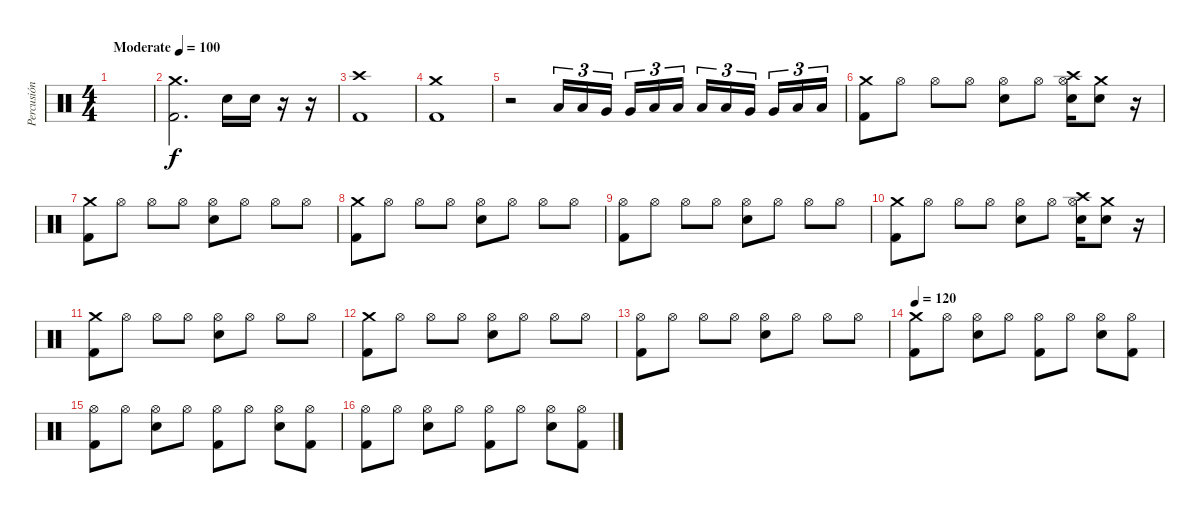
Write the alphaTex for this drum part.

\track ("Percusión" "Percusión") {instrument percussion}
\staff {score}
\articulation defaults
\ts (4 4)
\tempo (100 "Moderate")
\clef neutral
\ks c
|
("Crash medium (hit)" "Kick (hit) 2").2{d} "Electric Snare (hit)".16 "Electric Snare (hit)".16 r.16 r.16 |
("Crash high (hit)" "Kick (hit) 2").1 |
("Crash medium (hit)" "Kick (hit) 2").1 |
r.2 "Low Tom (hit)".16{tu (3 2)} "Low Tom (hit)".16{tu (3 2)} "Very Low Tom (hit)".16{tu (3 2) beam splitsecondary} "Very Low Tom (hit)".16{tu (3 2)} "Low Floor Tom (hit)".16{tu (3 2)} "Low Floor Tom (hit)".16{tu (3 2)} "Low Tom (hit)".16{tu (3 2)} "Low Tom (hit)".16{tu (3 2)} "Very Low Tom (hit)".16{tu (3 2) beam splitsecondary} "Very Low Tom (hit)".16{tu (3 2)} "Low Floor Tom (hit)".16{tu (3 2)} "Low Floor Tom (hit)".16{tu (3 2)} |
("Crash medium (hit)" "Kick (hit) 2").8 "Hi-Hat (open)".8 "Hi-Hat (open)".8 "Hi-Hat (open)".8 ("Hi-Hat (open)" "Electric Snare (hit)").8 "Hi-Hat (open)".8 ("Crash high (hit)" "Hi-Hat (open)" "Electric Snare (hit)").16 ("Crash medium (hit)" "Electric Snare (hit)").8 r.16 |
("Crash medium (hit)" "Kick (hit) 2").8 "Hi-Hat (open)".8 "Hi-Hat (open)".8 "Hi-Hat (open)".8 ("Hi-Hat (open)" "Electric Snare (hit)").8 "Hi-Hat (open)".8 "Hi-Hat (open)".8 "Hi-Hat (open)".8 |
("Crash medium (hit)" "Kick (hit) 2").8 "Hi-Hat (open)".8 "Hi-Hat (open)".8 "Hi-Hat (open)".8 ("Hi-Hat (open)" "Electric Snare (hit)").8 "Hi-Hat (open)".8 "Hi-Hat (open)".8 "Hi-Hat (open)".8 |
("Hi-Hat (open)" "Kick (hit) 2").8 "Hi-Hat (open)".8 "Hi-Hat (open)".8 "Hi-Hat (open)".8 ("Hi-Hat (open)" "Electric Snare (hit)").8 "Hi-Hat (open)".8 "Hi-Hat (open)".8 "Hi-Hat (open)".8 |
("Crash medium (hit)" "Kick (hit) 2").8 "Hi-Hat (open)".8 "Hi-Hat (open)".8 "Hi-Hat (open)".8 ("Hi-Hat (open)" "Electric Snare (hit)").8 "Hi-Hat (open)".8 ("Crash high (hit)" "Hi-Hat (open)" "Electric Snare (hit)").16 ("Crash medium (hit)" "Electric Snare (hit)").8 r.16 |
("Crash medium (hit)" "Kick (hit) 2").8 "Hi-Hat (open)".8 "Hi-Hat (open)".8 "Hi-Hat (open)".8 ("Hi-Hat (open)" "Electric Snare (hit)").8 "Hi-Hat (open)".8 "Hi-Hat (open)".8 "Hi-Hat (open)".8 |
("Crash medium (hit)" "Kick (hit) 2").8 "Hi-Hat (open)".8 "Hi-Hat (open)".8 "Hi-Hat (open)".8 ("Hi-Hat (open)" "Electric Snare (hit)").8 "Hi-Hat (open)".8 "Hi-Hat (open)".8 "Hi-Hat (open)".8 |
("Hi-Hat (open)" "Kick (hit) 2").8 "Hi-Hat (open)".8 "Hi-Hat (open)".8 "Hi-Hat (open)".8 ("Hi-Hat (open)" "Electric Snare (hit)").8 "Hi-Hat (open)".8 "Hi-Hat (open)".8 "Hi-Hat (open)".8 |
\tempo 120
("Crash medium (hit)" "Kick (hit) 2").8 "Hi-Hat (open)".8 ("Hi-Hat (open)" "Electric Snare (hit)").8 "Hi-Hat (open)".8 ("Hi-Hat (open)" "Kick (hit) 2").8 "Hi-Hat (open)".8 ("Hi-Hat (open)" "Electric Snare (hit)").8 ("Hi-Hat (open)" "Kick (hit) 2").8 |
("Hi-Hat (open)" "Kick (hit) 2").8 "Hi-Hat (open)".8 ("Hi-Hat (open)" "Electric Snare (hit)").8 "Hi-Hat (open)".8 ("Hi-Hat (open)" "Kick (hit) 2").8 "Hi-Hat (open)".8 ("Hi-Hat (open)" "Electric Snare (hit)").8 ("Hi-Hat (open)" "Kick (hit) 2").8 |
("Hi-Hat (open)" "Kick (hit) 2").8 "Hi-Hat (open)".8 ("Hi-Hat (open)" "Electric Snare (hit)").8 "Hi-Hat (open)".8 ("Hi-Hat (open)" "Kick (hit) 2").8 "Hi-Hat (open)".8 ("Hi-Hat (open)" "Electric Snare (hit)").8 ("Hi-Hat (open)" "Kick (hit) 2").8
